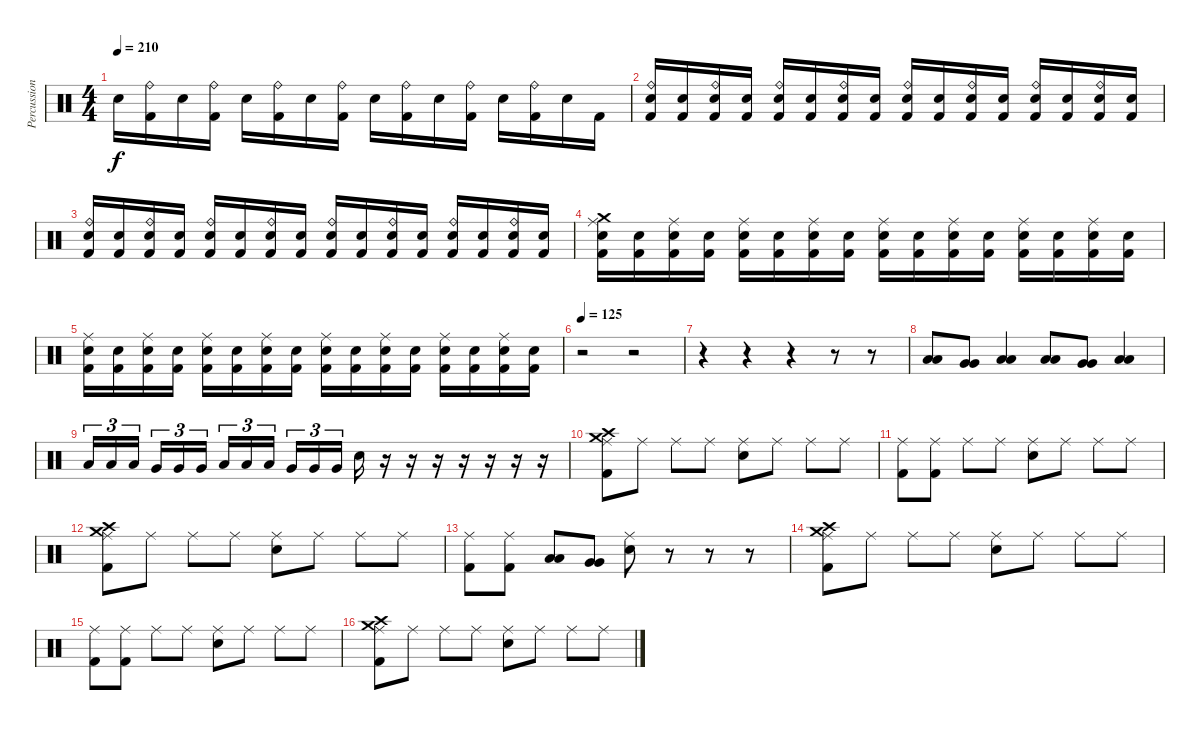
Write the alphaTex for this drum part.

\track ("Percussion" "Percussion") {instrument percussion}
\staff {score}
\articulation defaults
\ts (4 4)
\tempo 210
\clef neutral
\ks c "Snare (hit) 2".16{dy f}
("Ride (bell)" "Kick (hit) 2").16 "Snare (hit) 2".16 ("Ride (bell)" "Kick (hit) 2").16 "Snare (hit) 2".16 ("Ride (bell)" "Kick (hit) 2").16 "Snare (hit) 2".16 ("Ride (bell)" "Kick (hit) 2").16 "Snare (hit) 2".16 ("Ride (bell)" "Kick (hit) 2").16 "Snare (hit) 2".16 ("Ride (bell)" "Kick (hit) 2").16 "Snare (hit) 2".16 ("Ride (bell)" "Kick (hit) 2").16 "Snare (hit) 2".16 "Kick (hit) 2".16 |
("Ride (bell)" "Snare (hit) 2" "Kick (hit) 2").16 ("Snare (hit) 2" "Kick (hit) 2").16 ("Ride (bell)" "Snare (hit) 2" "Kick (hit) 2").16 ("Snare (hit) 2" "Kick (hit) 2").16 ("Ride (bell)" "Snare (hit) 2" "Kick (hit) 2").16 ("Snare (hit) 2" "Kick (hit) 2").16 ("Ride (bell)" "Snare (hit) 2" "Kick (hit) 2").16 ("Snare (hit) 2" "Kick (hit) 2").16 ("Ride (bell)" "Snare (hit) 2" "Kick (hit) 2").16 ("Snare (hit) 2" "Kick (hit) 2").16 ("Ride (bell)" "Snare (hit) 2" "Kick (hit) 2").16 ("Snare (hit) 2" "Kick (hit) 2").16 ("Ride (bell)" "Snare (hit) 2" "Kick (hit) 2").16 ("Snare (hit) 2" "Kick (hit) 2").16 ("Ride (bell)" "Snare (hit) 2" "Kick (hit) 2").16 ("Snare (hit) 2" "Kick (hit) 2").16 |
("Ride (bell)" "Snare (hit) 2" "Kick (hit) 2").16 ("Snare (hit) 2" "Kick (hit) 2").16 ("Ride (bell)" "Snare (hit) 2" "Kick (hit) 2").16 ("Snare (hit) 2" "Kick (hit) 2").16 ("Ride (bell)" "Snare (hit) 2" "Kick (hit) 2").16 ("Snare (hit) 2" "Kick (hit) 2").16 ("Ride (bell)" "Snare (hit) 2" "Kick (hit) 2").16 ("Snare (hit) 2" "Kick (hit) 2").16 ("Ride (bell)" "Snare (hit) 2" "Kick (hit) 2").16 ("Snare (hit) 2" "Kick (hit) 2").16 ("Ride (bell)" "Snare (hit) 2" "Kick (hit) 2").16 ("Snare (hit) 2" "Kick (hit) 2").16 ("Ride (bell)" "Snare (hit) 2" "Kick (hit) 2").16 ("Snare (hit) 2" "Kick (hit) 2").16 ("Ride (bell)" "Snare (hit) 2" "Kick (hit) 2").16 ("Snare (hit) 2" "Kick (hit) 2").16 |
("Crash medium (hit)" "Ride (middle)" "Snare (hit) 2" "Kick (hit) 2").16 ("Snare (hit) 2" "Kick (hit) 2").16 ("Ride (middle)" "Snare (hit) 2" "Kick (hit) 2").16 ("Snare (hit) 2" "Kick (hit) 2").16 ("Ride (middle)" "Snare (hit) 2" "Kick (hit) 2").16 ("Snare (hit) 2" "Kick (hit) 2").16 ("Ride (middle)" "Snare (hit) 2" "Kick (hit) 2").16 ("Snare (hit) 2" "Kick (hit) 2").16 ("Ride (middle)" "Snare (hit) 2" "Kick (hit) 2").16 ("Snare (hit) 2" "Kick (hit) 2").16 ("Ride (middle)" "Snare (hit) 2" "Kick (hit) 2").16 ("Snare (hit) 2" "Kick (hit) 2").16 ("Ride (middle)" "Snare (hit) 2" "Kick (hit) 2").16 ("Snare (hit) 2" "Kick (hit) 2").16 ("Ride (middle)" "Snare (hit) 2" "Kick (hit) 2").16 ("Snare (hit) 2" "Kick (hit) 2").16 |
("Ride (middle)" "Snare (hit) 2" "Kick (hit) 2").16 ("Snare (hit) 2" "Kick (hit) 2").16 ("Ride (middle)" "Snare (hit) 2" "Kick (hit) 2").16 ("Snare (hit) 2" "Kick (hit) 2").16 ("Ride (middle)" "Snare (hit) 2" "Kick (hit) 2").16 ("Snare (hit) 2" "Kick (hit) 2").16 ("Ride (middle)" "Snare (hit) 2" "Kick (hit) 2").16 ("Snare (hit) 2" "Kick (hit) 2").16 ("Ride (middle)" "Snare (hit) 2" "Kick (hit) 2").16 ("Snare (hit) 2" "Kick (hit) 2").16 ("Ride (middle)" "Snare (hit) 2" "Kick (hit) 2").16 ("Snare (hit) 2" "Kick (hit) 2").16 ("Ride (middle)" "Snare (hit) 2" "Kick (hit) 2").16 ("Snare (hit) 2" "Kick (hit) 2").16 ("Ride (middle)" "Snare (hit) 2" "Kick (hit) 2").16 ("Snare (hit) 2" "Kick (hit) 2").16 |
\tempo 125
r.2 r.2 |
r.4 r.4 r.4 r.8 r.8 |
("Low Tom (hit)" "Low Tom (hit)").8 ("Very Low Tom (hit)" "Very Low Tom (hit)").8 ("Low Floor Tom (hit)" "Low Floor Tom (hit)").4 ("Low Tom (hit)" "Low Tom (hit)").8 ("Very Low Tom (hit)" "Very Low Tom (hit)").8 ("Low Floor Tom (hit)" "Low Floor Tom (hit)").4 |
"Low Tom (hit)".16{tu (3 2)} "Low Tom (hit)".16{tu (3 2)} "Low Tom (hit)".16{tu (3 2)} "Very Low Tom (hit)".16{tu (3 2)} "Very Low Tom (hit)".16{tu (3 2)} "Very Low Tom (hit)".16{tu (3 2)} "Low Floor Tom (hit)".16{tu (3 2)} "Low Floor Tom (hit)".16{tu (3 2)} "Low Floor Tom (hit)".16{tu (3 2)} "Very Low Tom (hit)".16{tu (3 2)} "Very Low Tom (hit)".16{tu (3 2)} "Very Low Tom (hit)".16{tu (3 2)} "Snare (hit) 2".16 r.16 r.16 r.16 r.16 r.16 r.16 r.16 |
("Crash medium (hit)" "Ride (middle)" "Crash high (hit)" "Kick (hit) 2").8 "Ride (middle)".8 "Ride (middle)".8 "Ride (middle)".8 ("Ride (middle)" "Snare (hit) 2").8 "Ride (middle)".8 "Ride (middle)".8 "Ride (middle)".8 |
("Ride (middle)" "Kick (hit) 2").8 ("Ride (middle)" "Kick (hit) 2").8 "Ride (middle)".8 "Ride (middle)".8 ("Ride (middle)" "Snare (hit) 2").8 "Ride (middle)".8 "Ride (middle)".8 "Ride (middle)".8 |
("Crash medium (hit)" "Ride (middle)" "Crash high (hit)" "Kick (hit) 2").8 "Ride (middle)".8 "Ride (middle)".8 "Ride (middle)".8 ("Ride (middle)" "Snare (hit) 2").8 "Ride (middle)".8 "Ride (middle)".8 "Ride (middle)".8 |
("Ride (middle)" "Kick (hit) 2").8 ("Ride (middle)" "Kick (hit) 2").8 ("Low Floor Tom (hit)" "Low Floor Tom (hit)").8 ("Very Low Tom (hit)" "Very Low Tom (hit)").8 ("Ride (middle)" "Snare (hit) 2").8 r.8 r.8 r.8 |
("Crash medium (hit)" "Ride (middle)" "Crash high (hit)" "Kick (hit) 2").8 "Ride (middle)".8 "Ride (middle)".8 "Ride (middle)".8 ("Ride (middle)" "Snare (hit) 2").8 "Ride (middle)".8 "Ride (middle)".8 "Ride (middle)".8 |
("Ride (middle)" "Kick (hit) 2").8 ("Ride (middle)" "Kick (hit) 2").8 "Ride (middle)".8 "Ride (middle)".8 ("Ride (middle)" "Snare (hit) 2").8 "Ride (middle)".8 "Ride (middle)".8 "Ride (middle)".8 |
("Crash medium (hit)" "Ride (middle)" "Crash high (hit)" "Kick (hit) 2").8 "Ride (middle)".8 "Ride (middle)".8 "Ride (middle)".8 ("Ride (middle)" "Snare (hit) 2").8 "Ride (middle)".8 "Ride (middle)".8 "Ride (middle)".8
